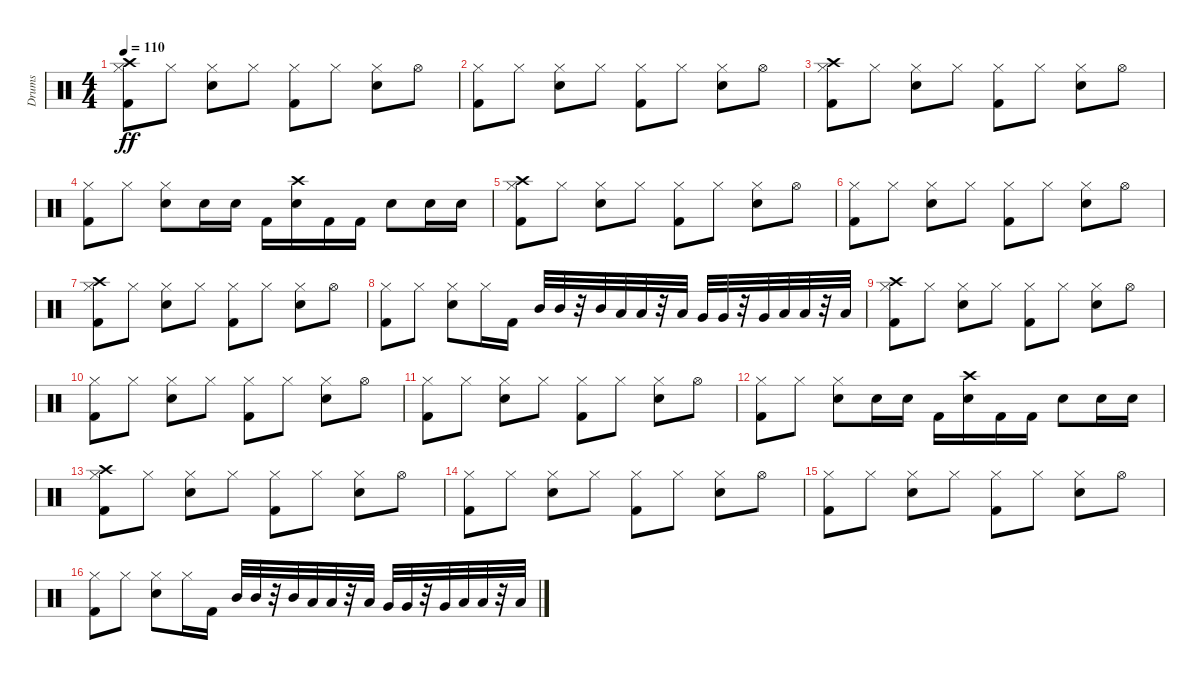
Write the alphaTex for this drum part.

\track ("Drums" "Drums") {instrument percussion}
\staff {score}
\articulation defaults
\ts (4 4)
\tempo 110
\clef neutral
\ks c
("Kick (hit) 2" "Hi-Hat (closed)" "Crash high (hit)").8{dy ff} "Hi-Hat (closed)".8 ("Snare (hit) 2" "Hi-Hat (closed)").8 "Hi-Hat (closed)".8 ("Kick (hit) 2" "Hi-Hat (closed)").8 "Hi-Hat (closed)".8 ("Snare (hit) 2" "Hi-Hat (closed)").8 "Hi-Hat (open)".8 |
("Kick (hit) 2" "Hi-Hat (closed)").8 "Hi-Hat (closed)".8 ("Snare (hit) 2" "Hi-Hat (closed)").8 "Hi-Hat (closed)".8 ("Kick (hit) 2" "Hi-Hat (closed)").8 "Hi-Hat (closed)".8 ("Snare (hit) 2" "Hi-Hat (closed)").8 "Hi-Hat (open)".8 |
("Kick (hit) 2" "Hi-Hat (closed)" "Crash high (hit)").8 "Hi-Hat (closed)".8 ("Snare (hit) 2" "Hi-Hat (closed)").8 "Hi-Hat (closed)".8 ("Kick (hit) 2" "Hi-Hat (closed)").8 "Hi-Hat (closed)".8 ("Snare (hit) 2" "Hi-Hat (closed)").8 "Hi-Hat (open)".8 |
("Kick (hit) 2" "Hi-Hat (closed)").8 "Hi-Hat (closed)".8 ("Snare (hit) 2" "Hi-Hat (closed)").8 "Snare (hit) 2".16 "Snare (hit) 2".16 "Kick (hit) 2".16 ("Snare (hit) 2" "Crash high (hit)").16 "Kick (hit) 2".16 "Kick (hit) 2".16 "Snare (hit) 2".8 "Snare (hit) 2".16 "Snare (hit) 2".16 |
("Kick (hit) 2" "Hi-Hat (closed)" "Crash high (hit)").8 "Hi-Hat (closed)".8 ("Snare (hit) 2" "Hi-Hat (closed)").8 "Hi-Hat (closed)".8 ("Kick (hit) 2" "Hi-Hat (closed)").8 "Hi-Hat (closed)".8 ("Snare (hit) 2" "Hi-Hat (closed)").8 "Hi-Hat (open)".8 |
("Kick (hit) 2" "Hi-Hat (closed)").8 "Hi-Hat (closed)".8 ("Snare (hit) 2" "Hi-Hat (closed)").8 "Hi-Hat (closed)".8 ("Kick (hit) 2" "Hi-Hat (closed)").8 "Hi-Hat (closed)".8 ("Snare (hit) 2" "Hi-Hat (closed)").8 "Hi-Hat (open)".8 |
("Kick (hit) 2" "Hi-Hat (closed)" "Crash high (hit)").8 "Hi-Hat (closed)".8 ("Snare (hit) 2" "Hi-Hat (closed)").8 "Hi-Hat (closed)".8 ("Kick (hit) 2" "Hi-Hat (closed)").8 "Hi-Hat (closed)".8 ("Snare (hit) 2" "Hi-Hat (closed)").8 "Hi-Hat (open)".8 |
("Kick (hit) 2" "Hi-Hat (closed)").8 "Hi-Hat (closed)".8 ("Snare (hit) 2" "Hi-Hat (closed)").8 "Hi-Hat (closed)".16 "Kick (hit) 2".16 "Mid Tom (hit)".32 "Mid Tom (hit)".32 r.32 "Mid Tom (hit)".32 "Low Tom (hit)".32 "Low Tom (hit)".32 r.32 "Low Tom (hit)".32 "Very Low Tom (hit)".32 "Very Low Tom (hit)".32 r.32 "Very Low Tom (hit)".32 "Low Floor Tom (hit)".32 "Low Floor Tom (hit)".32 r.32 "Low Floor Tom (hit)".32 |
("Kick (hit) 2" "Hi-Hat (closed)" "Crash high (hit)").8 "Hi-Hat (closed)".8 ("Snare (hit) 2" "Hi-Hat (closed)").8 "Hi-Hat (closed)".8 ("Kick (hit) 2" "Hi-Hat (closed)").8 "Hi-Hat (closed)".8 ("Snare (hit) 2" "Hi-Hat (closed)").8 "Hi-Hat (open)".8 |
("Kick (hit) 2" "Hi-Hat (closed)").8 "Hi-Hat (closed)".8 ("Snare (hit) 2" "Hi-Hat (closed)").8 "Hi-Hat (closed)".8 ("Kick (hit) 2" "Hi-Hat (closed)").8 "Hi-Hat (closed)".8 ("Snare (hit) 2" "Hi-Hat (closed)").8 "Hi-Hat (open)".8 |
("Kick (hit) 2" "Hi-Hat (closed)").8 "Hi-Hat (closed)".8 ("Snare (hit) 2" "Hi-Hat (closed)").8 "Hi-Hat (closed)".8 ("Kick (hit) 2" "Hi-Hat (closed)").8 "Hi-Hat (closed)".8 ("Snare (hit) 2" "Hi-Hat (closed)").8 "Hi-Hat (open)".8 |
("Kick (hit) 2" "Hi-Hat (closed)").8 "Hi-Hat (closed)".8 ("Snare (hit) 2" "Hi-Hat (closed)").8 "Snare (hit) 2".16 "Snare (hit) 2".16 "Kick (hit) 2".16 ("Snare (hit) 2" "Crash high (hit)").16 "Kick (hit) 2".16 "Kick (hit) 2".16 "Snare (hit) 2".8 "Snare (hit) 2".16 "Snare (hit) 2".16 |
("Kick (hit) 2" "Hi-Hat (closed)" "Crash high (hit)").8 "Hi-Hat (closed)".8 ("Snare (hit) 2" "Hi-Hat (closed)").8 "Hi-Hat (closed)".8 ("Kick (hit) 2" "Hi-Hat (closed)").8 "Hi-Hat (closed)".8 ("Snare (hit) 2" "Hi-Hat (closed)").8 "Hi-Hat (open)".8 |
("Kick (hit) 2" "Hi-Hat (closed)").8 "Hi-Hat (closed)".8 ("Snare (hit) 2" "Hi-Hat (closed)").8 "Hi-Hat (closed)".8 ("Kick (hit) 2" "Hi-Hat (closed)").8 "Hi-Hat (closed)".8 ("Snare (hit) 2" "Hi-Hat (closed)").8 "Hi-Hat (open)".8 |
("Kick (hit) 2" "Hi-Hat (closed)").8 "Hi-Hat (closed)".8 ("Snare (hit) 2" "Hi-Hat (closed)").8 "Hi-Hat (closed)".8 ("Kick (hit) 2" "Hi-Hat (closed)").8 "Hi-Hat (closed)".8 ("Snare (hit) 2" "Hi-Hat (closed)").8 "Hi-Hat (open)".8 |
("Kick (hit) 2" "Hi-Hat (closed)").8 "Hi-Hat (closed)".8 ("Snare (hit) 2" "Hi-Hat (closed)").8 "Hi-Hat (closed)".16 "Kick (hit) 2".16 "Mid Tom (hit)".32 "Mid Tom (hit)".32 r.32 "Mid Tom (hit)".32 "Low Tom (hit)".32 "Low Tom (hit)".32 r.32 "Low Tom (hit)".32 "Very Low Tom (hit)".32 "Very Low Tom (hit)".32 r.32 "Very Low Tom (hit)".32 "Low Floor Tom (hit)".32 "Low Floor Tom (hit)".32 r.32 "Low Floor Tom (hit)".32
